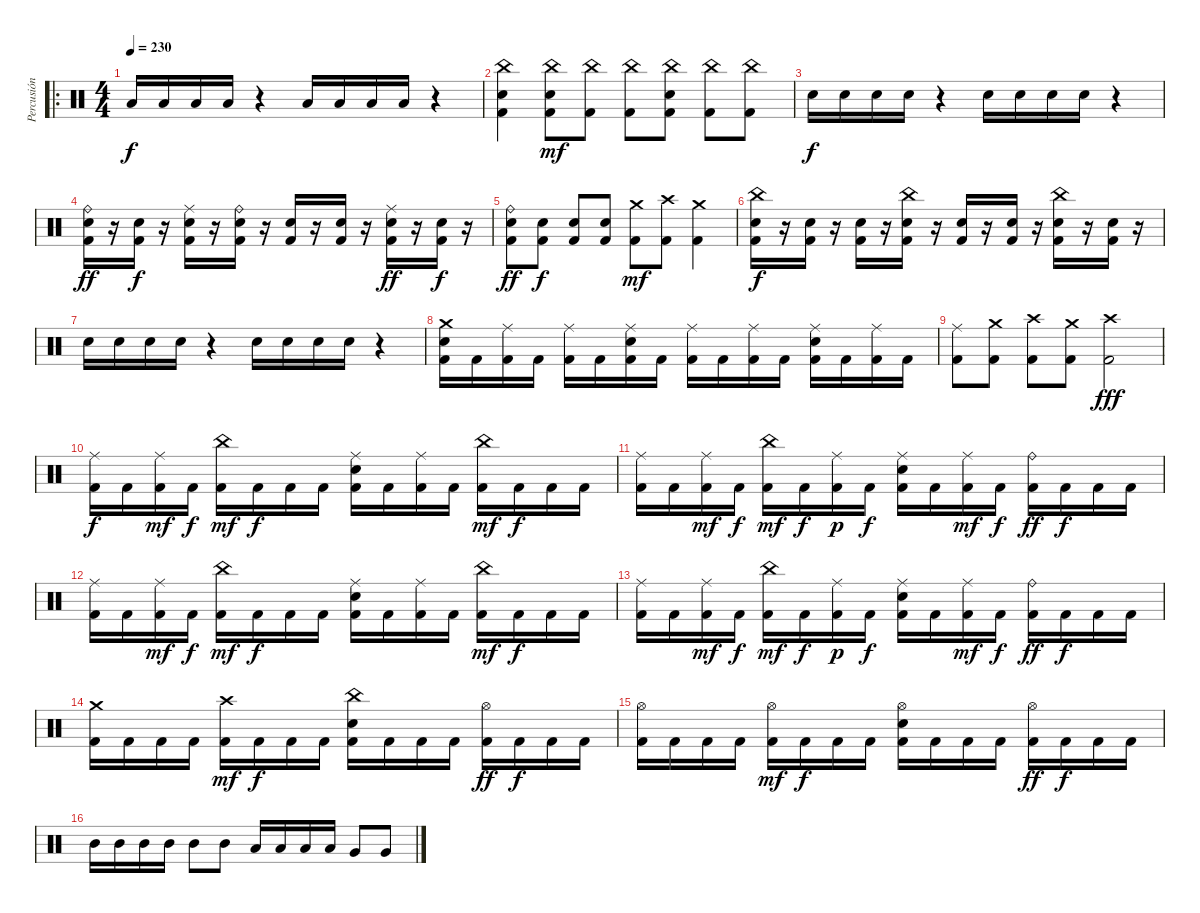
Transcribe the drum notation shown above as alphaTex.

\track ("Percusión" "Percusión") {instrument percussion}
\staff {score}
\articulation defaults
\ro
\ts (4 4)
\tempo 230
\clef neutral
\ks c "Low Floor Tom (hit)".16{dy f} "Low Floor Tom (hit)".16 "Low Floor Tom (hit)".16 "Low Floor Tom (hit)".16
r.4 "Low Floor Tom (hit)".16 "Low Floor Tom (hit)".16 "Low Floor Tom (hit)".16 "Low Floor Tom (hit)".16 r.4 |
("China (hit)" "Kick (hit) 2" "Snare (hit) 2").4 ("China (hit)" "Kick (hit) 2" "Snare (hit) 2").8{dy mf} ("China (hit)" "Kick (hit) 2").8 ("China (hit)" "Kick (hit) 2").8 ("China (hit)" "Kick (hit) 2" "Snare (hit) 2").8 ("China (hit)" "Kick (hit) 2").8 ("China (hit)" "Kick (hit) 2").8 |
"Snare (hit) 2".16{dy f} "Snare (hit) 2".16 "Snare (hit) 2".16 "Snare (hit) 2".16 r.4 "Snare (hit) 2".16 "Snare (hit) 2".16 "Snare (hit) 2".16 "Snare (hit) 2".16 r.4 |
("Ride (bell)" "Kick (hit) 2" "Snare (hit) 2").16{dy ff} r.16 ("Kick (hit) 2" "Snare (hit) 2").16{dy f} r.16 ("Ride (middle)" "Kick (hit) 2" "Snare (hit) 2").16 r.16 ("Ride (bell)" "Kick (hit) 2" "Snare (hit) 2").16 r.16 ("Kick (hit) 2" "Snare (hit) 2").16 r.16 ("Kick (hit) 2" "Snare (hit) 2").16 r.16 ("Ride (middle)" "Kick (hit) 2" "Snare (hit) 2").16{dy ff} r.16 ("Kick (hit) 2" "Snare (hit) 2").16{dy f} r.16 |
("Ride (bell)" "Kick (hit) 2" "Snare (hit) 2").8{dy ff} ("Kick (hit) 2" "Snare (hit) 2").8{dy f} ("Kick (hit) 2" "Snare (hit) 2").8 ("Kick (hit) 2" "Snare (hit) 2").8 ("Crash medium (hit)" "Kick (hit) 2").8{dy mf} ("Crash high (hit)" "Kick (hit) 2").8 ("Crash medium (hit)" "Kick (hit) 2").4 |
("China (hit)" "Kick (hit) 2" "Snare (hit) 2").16{dy f} r.16 ("Kick (hit) 2" "Snare (hit) 2").16 r.16 ("Kick (hit) 2" "Snare (hit) 2").16 r.16 ("China (hit)" "Kick (hit) 2" "Snare (hit) 2").16 r.16 ("Kick (hit) 2" "Snare (hit) 2").16 r.16 ("Kick (hit) 2" "Snare (hit) 2").16 r.16 ("China (hit)" "Kick (hit) 2" "Snare (hit) 2").16 r.16 ("Kick (hit) 2" "Snare (hit) 2").16 r.16 |
"Snare (hit) 2".16 "Snare (hit) 2".16 "Snare (hit) 2".16 "Snare (hit) 2".16 r.4 "Snare (hit) 2".16 "Snare (hit) 2".16 "Snare (hit) 2".16 "Snare (hit) 2".16 r.4 |
("Crash medium (hit)" "Kick (hit) 2" "Snare (hit) 2").16 "Kick (hit) 2".16 ("Ride (middle)" "Kick (hit) 2").16 "Kick (hit) 2".16 ("Ride (middle)" "Kick (hit) 2").16 "Kick (hit) 2".16 ("Ride (middle)" "Kick (hit) 2" "Snare (hit) 2").16 "Kick (hit) 2".16 ("Ride (middle)" "Kick (hit) 2").16 "Kick (hit) 2".16 ("Ride (middle)" "Kick (hit) 2").16 "Kick (hit) 2".16 ("Ride (middle)" "Kick (hit) 2" "Snare (hit) 2").16 "Kick (hit) 2".16 ("Ride (middle)" "Kick (hit) 2").16 "Kick (hit) 2".16 |
("Ride (middle)" "Kick (hit) 2").8 ("Crash medium (hit)" "Kick (hit) 2").8 ("Crash high (hit)" "Kick (hit) 2").8 ("Crash medium (hit)" "Kick (hit) 2").8 ("Crash high (hit)" "Kick (hit) 2").2{dy fff} |
("Ride (middle)" "Kick (hit) 2").16{dy f} "Kick (hit) 2".16 ("Ride (middle)" "Kick (hit) 2").16{dy mf} "Kick (hit) 2".16{dy f} ("China (hit)" "Kick (hit) 2").16{dy mf} "Kick (hit) 2".16{dy f} "Kick (hit) 2".16 "Kick (hit) 2".16 ("Ride (middle)" "Kick (hit) 2" "Snare (hit) 2").16 "Kick (hit) 2".16 ("Ride (middle)" "Kick (hit) 2").16 "Kick (hit) 2".16 ("China (hit)" "Kick (hit) 2").16{dy mf} "Kick (hit) 2".16{dy f} "Kick (hit) 2".16 "Kick (hit) 2".16 |
("Ride (middle)" "Kick (hit) 2").16 "Kick (hit) 2".16 ("Ride (middle)" "Kick (hit) 2").16{dy mf} "Kick (hit) 2".16{dy f} ("China (hit)" "Kick (hit) 2").16{dy mf} "Kick (hit) 2".16{dy f} ("Ride (middle)" "Kick (hit) 2").16{dy p} "Kick (hit) 2".16{dy f} ("Ride (middle)" "Kick (hit) 2" "Snare (hit) 2").16 "Kick (hit) 2".16 ("Ride (middle)" "Kick (hit) 2").16{dy mf} "Kick (hit) 2".16{dy f} ("Ride (bell)" "Kick (hit) 2").16{dy ff} "Kick (hit) 2".16{dy f} "Kick (hit) 2".16 "Kick (hit) 2".16 |
("Ride (middle)" "Kick (hit) 2").16 "Kick (hit) 2".16 ("Ride (middle)" "Kick (hit) 2").16{dy mf} "Kick (hit) 2".16{dy f} ("China (hit)" "Kick (hit) 2").16{dy mf} "Kick (hit) 2".16{dy f} "Kick (hit) 2".16 "Kick (hit) 2".16 ("Ride (middle)" "Kick (hit) 2" "Snare (hit) 2").16 "Kick (hit) 2".16 ("Ride (middle)" "Kick (hit) 2").16 "Kick (hit) 2".16 ("China (hit)" "Kick (hit) 2").16{dy mf} "Kick (hit) 2".16{dy f} "Kick (hit) 2".16 "Kick (hit) 2".16 |
("Ride (middle)" "Kick (hit) 2").16 "Kick (hit) 2".16 ("Ride (middle)" "Kick (hit) 2").16{dy mf} "Kick (hit) 2".16{dy f} ("China (hit)" "Kick (hit) 2").16{dy mf} "Kick (hit) 2".16{dy f} ("Ride (middle)" "Kick (hit) 2").16{dy p} "Kick (hit) 2".16{dy f} ("Ride (middle)" "Kick (hit) 2" "Snare (hit) 2").16 "Kick (hit) 2".16 ("Ride (middle)" "Kick (hit) 2").16{dy mf} "Kick (hit) 2".16{dy f} ("Ride (bell)" "Kick (hit) 2").16{dy ff} "Kick (hit) 2".16{dy f} "Kick (hit) 2".16 "Kick (hit) 2".16 |
("Crash medium (hit)" "Kick (hit) 2").16 "Kick (hit) 2".16 "Kick (hit) 2".16 "Kick (hit) 2".16 ("Crash high (hit)" "Kick (hit) 2").16{dy mf} "Kick (hit) 2".16{dy f} "Kick (hit) 2".16 "Kick (hit) 2".16 ("China (hit)" "Kick (hit) 2" "Snare (hit) 2").16 "Kick (hit) 2".16 "Kick (hit) 2".16 "Kick (hit) 2".16 ("Hi-Hat (open)" "Kick (hit) 2").16{dy ff} "Kick (hit) 2".16{dy f} "Kick (hit) 2".16 "Kick (hit) 2".16 |
("Hi-Hat (open)" "Kick (hit) 2").16 "Kick (hit) 2".16 "Kick (hit) 2".16 "Kick (hit) 2".16 ("Hi-Hat (open)" "Kick (hit) 2").16{dy mf} "Kick (hit) 2".16{dy f} "Kick (hit) 2".16 "Kick (hit) 2".16 ("Hi-Hat (open)" "Kick (hit) 2" "Snare (hit) 2").16 "Kick (hit) 2".16 "Kick (hit) 2".16 "Kick (hit) 2".16 ("Hi-Hat (open)" "Kick (hit) 2").16{dy ff} "Kick (hit) 2".16{dy f} "Kick (hit) 2".16 "Kick (hit) 2".16 |
"Mid Tom (hit)".16 "Mid Tom (hit)".16 "Mid Tom (hit)".16 "Mid Tom (hit)".16 "Mid Tom (hit)".8 "Mid Tom (hit)".8 "Low Tom (hit)".16 "Low Tom (hit)".16 "Low Tom (hit)".16 "Low Tom (hit)".16 "Very Low Tom (hit)".8 "Very Low Tom (hit)".8
